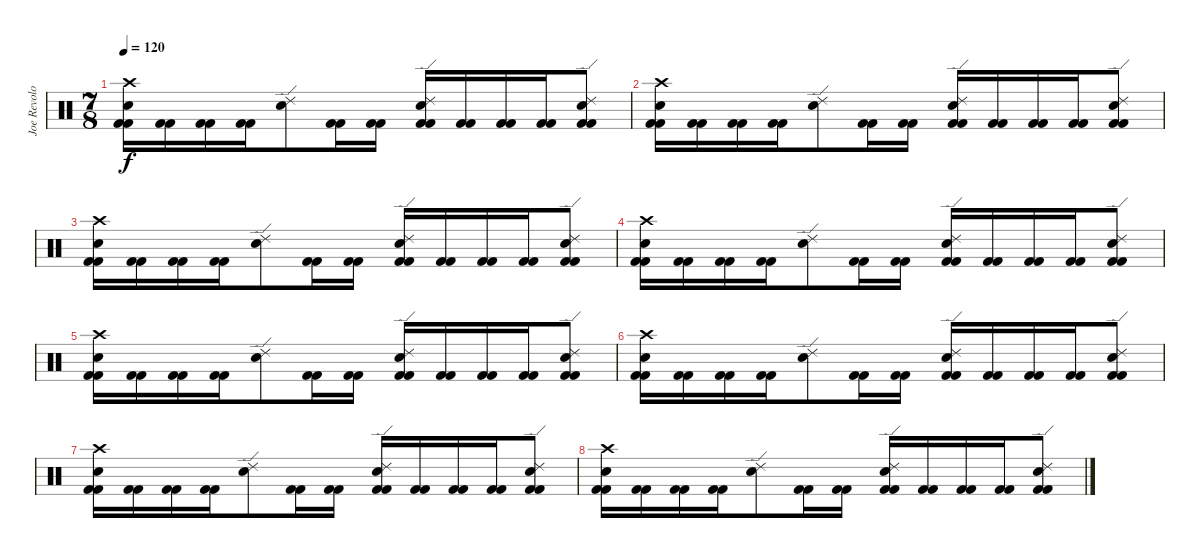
\track ("Joe Revolo" "Joe Revolo") {instrument percussion}
\staff {score}
\articulation defaults
\ts (7 8)
\tempo 120
\clef neutral
\ks c
("Crash high (hit)" "Electric Snare (hit)" "Kick (hit) 2" "Kick (hit) 2").16{dy f} ("Kick (hit) 2" "Kick (hit) 2").16 ("Kick (hit) 2" "Kick (hit) 2").16 ("Kick (hit) 2" "Kick (hit) 2").16 ("Ride (edge) 2" "Electric Snare (hit)").8 ("Kick (hit) 2" "Kick (hit) 2").16 ("Kick (hit) 2" "Kick (hit) 2").16 ("Ride (edge) 2" "Electric Snare (hit)" "Kick (hit) 2" "Kick (hit) 2").16 ("Kick (hit) 2" "Kick (hit) 2").16 ("Kick (hit) 2" "Kick (hit) 2").16 ("Kick (hit) 2" "Kick (hit) 2").16 ("Ride (edge) 2" "Electric Snare (hit)" "Kick (hit) 2" "Kick (hit) 2").8 |
("Crash high (hit)" "Electric Snare (hit)" "Kick (hit) 2" "Kick (hit) 2").16 ("Kick (hit) 2" "Kick (hit) 2").16 ("Kick (hit) 2" "Kick (hit) 2").16 ("Kick (hit) 2" "Kick (hit) 2").16 ("Ride (edge) 2" "Electric Snare (hit)").8 ("Kick (hit) 2" "Kick (hit) 2").16 ("Kick (hit) 2" "Kick (hit) 2").16 ("Ride (edge) 2" "Electric Snare (hit)" "Kick (hit) 2" "Kick (hit) 2").16 ("Kick (hit) 2" "Kick (hit) 2").16 ("Kick (hit) 2" "Kick (hit) 2").16 ("Kick (hit) 2" "Kick (hit) 2").16 ("Ride (edge) 2" "Electric Snare (hit)" "Kick (hit) 2" "Kick (hit) 2").8 |
("Crash high (hit)" "Electric Snare (hit)" "Kick (hit) 2" "Kick (hit) 2").16 ("Kick (hit) 2" "Kick (hit) 2").16 ("Kick (hit) 2" "Kick (hit) 2").16 ("Kick (hit) 2" "Kick (hit) 2").16 ("Ride (edge) 2" "Electric Snare (hit)").8 ("Kick (hit) 2" "Kick (hit) 2").16 ("Kick (hit) 2" "Kick (hit) 2").16 ("Ride (edge) 2" "Electric Snare (hit)" "Kick (hit) 2" "Kick (hit) 2").16 ("Kick (hit) 2" "Kick (hit) 2").16 ("Kick (hit) 2" "Kick (hit) 2").16 ("Kick (hit) 2" "Kick (hit) 2").16 ("Ride (edge) 2" "Electric Snare (hit)" "Kick (hit) 2" "Kick (hit) 2").8 |
("Crash high (hit)" "Electric Snare (hit)" "Kick (hit) 2" "Kick (hit) 2").16 ("Kick (hit) 2" "Kick (hit) 2").16 ("Kick (hit) 2" "Kick (hit) 2").16 ("Kick (hit) 2" "Kick (hit) 2").16 ("Ride (edge) 2" "Electric Snare (hit)").8 ("Kick (hit) 2" "Kick (hit) 2").16 ("Kick (hit) 2" "Kick (hit) 2").16 ("Ride (edge) 2" "Electric Snare (hit)" "Kick (hit) 2" "Kick (hit) 2").16 ("Kick (hit) 2" "Kick (hit) 2").16 ("Kick (hit) 2" "Kick (hit) 2").16 ("Kick (hit) 2" "Kick (hit) 2").16 ("Ride (edge) 2" "Electric Snare (hit)" "Kick (hit) 2" "Kick (hit) 2").8 |
("Crash high (hit)" "Electric Snare (hit)" "Kick (hit) 2" "Kick (hit) 2").16 ("Kick (hit) 2" "Kick (hit) 2").16 ("Kick (hit) 2" "Kick (hit) 2").16 ("Kick (hit) 2" "Kick (hit) 2").16 ("Ride (edge) 2" "Electric Snare (hit)").8 ("Kick (hit) 2" "Kick (hit) 2").16 ("Kick (hit) 2" "Kick (hit) 2").16 ("Ride (edge) 2" "Electric Snare (hit)" "Kick (hit) 2" "Kick (hit) 2").16 ("Kick (hit) 2" "Kick (hit) 2").16 ("Kick (hit) 2" "Kick (hit) 2").16 ("Kick (hit) 2" "Kick (hit) 2").16 ("Ride (edge) 2" "Electric Snare (hit)" "Kick (hit) 2" "Kick (hit) 2").8 |
("Crash high (hit)" "Electric Snare (hit)" "Kick (hit) 2" "Kick (hit) 2").16 ("Kick (hit) 2" "Kick (hit) 2").16 ("Kick (hit) 2" "Kick (hit) 2").16 ("Kick (hit) 2" "Kick (hit) 2").16 ("Ride (edge) 2" "Electric Snare (hit)").8 ("Kick (hit) 2" "Kick (hit) 2").16 ("Kick (hit) 2" "Kick (hit) 2").16 ("Ride (edge) 2" "Electric Snare (hit)" "Kick (hit) 2" "Kick (hit) 2").16 ("Kick (hit) 2" "Kick (hit) 2").16 ("Kick (hit) 2" "Kick (hit) 2").16 ("Kick (hit) 2" "Kick (hit) 2").16 ("Ride (edge) 2" "Electric Snare (hit)" "Kick (hit) 2" "Kick (hit) 2").8 |
("Crash high (hit)" "Electric Snare (hit)" "Kick (hit) 2" "Kick (hit) 2").16 ("Kick (hit) 2" "Kick (hit) 2").16 ("Kick (hit) 2" "Kick (hit) 2").16 ("Kick (hit) 2" "Kick (hit) 2").16 ("Ride (edge) 2" "Electric Snare (hit)").8 ("Kick (hit) 2" "Kick (hit) 2").16 ("Kick (hit) 2" "Kick (hit) 2").16 ("Ride (edge) 2" "Electric Snare (hit)" "Kick (hit) 2" "Kick (hit) 2").16 ("Kick (hit) 2" "Kick (hit) 2").16 ("Kick (hit) 2" "Kick (hit) 2").16 ("Kick (hit) 2" "Kick (hit) 2").16 ("Ride (edge) 2" "Electric Snare (hit)" "Kick (hit) 2" "Kick (hit) 2").8 |
("Crash high (hit)" "Electric Snare (hit)" "Kick (hit) 2" "Kick (hit) 2").16 ("Kick (hit) 2" "Kick (hit) 2").16 ("Kick (hit) 2" "Kick (hit) 2").16 ("Kick (hit) 2" "Kick (hit) 2").16 ("Ride (edge) 2" "Electric Snare (hit)").8 ("Kick (hit) 2" "Kick (hit) 2").16 ("Kick (hit) 2" "Kick (hit) 2").16 ("Ride (edge) 2" "Electric Snare (hit)" "Kick (hit) 2" "Kick (hit) 2").16 ("Kick (hit) 2" "Kick (hit) 2").16 ("Kick (hit) 2" "Kick (hit) 2").16 ("Kick (hit) 2" "Kick (hit) 2").16 ("Ride (edge) 2" "Electric Snare (hit)" "Kick (hit) 2" "Kick (hit) 2").8
